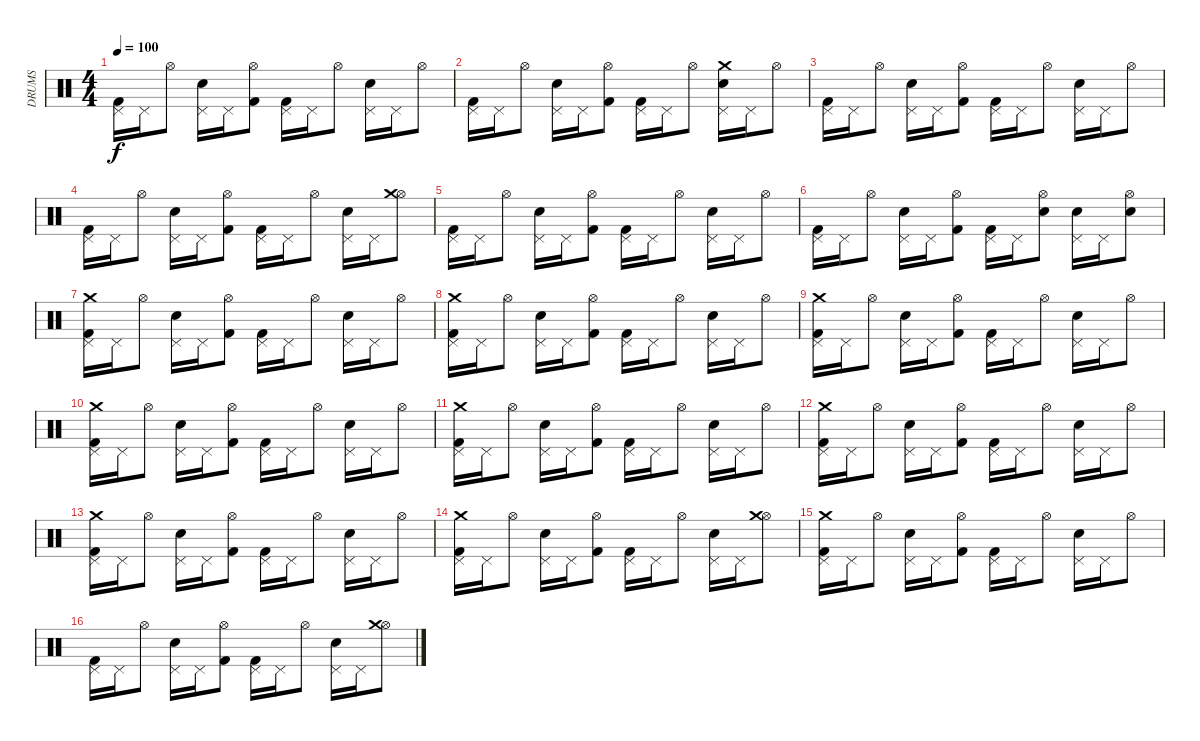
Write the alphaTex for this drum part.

\track ("DRUMS" "DRUMS") {instrument percussion}
\staff {score}
\articulation defaults
\ts (4 4)
\tempo 100
\clef neutral
\ks c
("Kick (hit) 2" "Pedal Hi-Hat (hit)").16{dy f} "Pedal Hi-Hat (hit)".16 "Hi-Hat (open)".8 ("Electric Snare (hit)" "Pedal Hi-Hat (hit)").16 "Pedal Hi-Hat (hit)".16 ("Kick (hit) 2" "Hi-Hat (open)").8 ("Kick (hit) 2" "Pedal Hi-Hat (hit)").16 "Pedal Hi-Hat (hit)".16 "Hi-Hat (open)".8 ("Electric Snare (hit)" "Pedal Hi-Hat (hit)").16 "Pedal Hi-Hat (hit)".16 "Hi-Hat (open)".8 |
("Kick (hit) 2" "Pedal Hi-Hat (hit)").16 "Pedal Hi-Hat (hit)".16 "Hi-Hat (open)".8 ("Electric Snare (hit)" "Pedal Hi-Hat (hit)").16 "Pedal Hi-Hat (hit)".16 ("Kick (hit) 2" "Hi-Hat (open)").8 ("Kick (hit) 2" "Pedal Hi-Hat (hit)").16 "Pedal Hi-Hat (hit)".16 "Hi-Hat (open)".8 ("Electric Snare (hit)" "Pedal Hi-Hat (hit)" "Crash medium (hit)").16 "Pedal Hi-Hat (hit)".16 "Hi-Hat (open)".8 |
("Kick (hit) 2" "Pedal Hi-Hat (hit)").16 "Pedal Hi-Hat (hit)".16 "Hi-Hat (open)".8 ("Electric Snare (hit)" "Pedal Hi-Hat (hit)").16 "Pedal Hi-Hat (hit)".16 ("Kick (hit) 2" "Hi-Hat (open)").8 ("Kick (hit) 2" "Pedal Hi-Hat (hit)").16 "Pedal Hi-Hat (hit)".16 "Hi-Hat (open)".8 ("Electric Snare (hit)" "Pedal Hi-Hat (hit)").16 "Pedal Hi-Hat (hit)".16 "Hi-Hat (open)".8 |
("Kick (hit) 2" "Pedal Hi-Hat (hit)").16 "Pedal Hi-Hat (hit)".16 "Hi-Hat (open)".8 ("Electric Snare (hit)" "Pedal Hi-Hat (hit)").16 "Pedal Hi-Hat (hit)".16 ("Kick (hit) 2" "Hi-Hat (open)").8 ("Kick (hit) 2" "Pedal Hi-Hat (hit)").16 "Pedal Hi-Hat (hit)".16 "Hi-Hat (open)".8 ("Electric Snare (hit)" "Pedal Hi-Hat (hit)").16 "Pedal Hi-Hat (hit)".16 ("Hi-Hat (open)" "Crash medium (hit)").8 |
("Kick (hit) 2" "Pedal Hi-Hat (hit)").16 "Pedal Hi-Hat (hit)".16 "Hi-Hat (open)".8 ("Electric Snare (hit)" "Pedal Hi-Hat (hit)").16 "Pedal Hi-Hat (hit)".16 ("Kick (hit) 2" "Hi-Hat (open)").8 ("Kick (hit) 2" "Pedal Hi-Hat (hit)").16 "Pedal Hi-Hat (hit)".16 "Hi-Hat (open)".8 ("Electric Snare (hit)" "Pedal Hi-Hat (hit)").16 "Pedal Hi-Hat (hit)".16 "Hi-Hat (open)".8 |
("Kick (hit) 2" "Pedal Hi-Hat (hit)").16 "Pedal Hi-Hat (hit)".16 "Hi-Hat (open)".8 ("Electric Snare (hit)" "Pedal Hi-Hat (hit)").16 "Pedal Hi-Hat (hit)".16 ("Kick (hit) 2" "Hi-Hat (open)").8 ("Kick (hit) 2" "Pedal Hi-Hat (hit)").16 "Pedal Hi-Hat (hit)".16 ("Electric Snare (hit)" "Hi-Hat (open)").8 ("Electric Snare (hit)" "Pedal Hi-Hat (hit)").16 "Pedal Hi-Hat (hit)".16 ("Electric Snare (hit)" "Hi-Hat (open)").8 |
("Kick (hit) 2" "Pedal Hi-Hat (hit)" "Crash medium (hit)").16 "Pedal Hi-Hat (hit)".16 "Hi-Hat (open)".8 ("Electric Snare (hit)" "Pedal Hi-Hat (hit)").16 "Pedal Hi-Hat (hit)".16 ("Kick (hit) 2" "Hi-Hat (open)").8 ("Kick (hit) 2" "Pedal Hi-Hat (hit)").16 "Pedal Hi-Hat (hit)".16 "Hi-Hat (open)".8 ("Electric Snare (hit)" "Pedal Hi-Hat (hit)").16 "Pedal Hi-Hat (hit)".16 "Hi-Hat (open)".8 |
("Kick (hit) 2" "Pedal Hi-Hat (hit)" "Crash medium (hit)").16 "Pedal Hi-Hat (hit)".16 "Hi-Hat (open)".8 ("Electric Snare (hit)" "Pedal Hi-Hat (hit)").16 "Pedal Hi-Hat (hit)".16 ("Kick (hit) 2" "Hi-Hat (open)").8 ("Kick (hit) 2" "Pedal Hi-Hat (hit)").16 "Pedal Hi-Hat (hit)".16 "Hi-Hat (open)".8 ("Electric Snare (hit)" "Pedal Hi-Hat (hit)").16 "Pedal Hi-Hat (hit)".16 "Hi-Hat (open)".8 |
("Kick (hit) 2" "Pedal Hi-Hat (hit)" "Crash medium (hit)").16 "Pedal Hi-Hat (hit)".16 "Hi-Hat (open)".8 ("Electric Snare (hit)" "Pedal Hi-Hat (hit)").16 "Pedal Hi-Hat (hit)".16 ("Kick (hit) 2" "Hi-Hat (open)").8 ("Kick (hit) 2" "Pedal Hi-Hat (hit)").16 "Pedal Hi-Hat (hit)".16 "Hi-Hat (open)".8 ("Electric Snare (hit)" "Pedal Hi-Hat (hit)").16 "Pedal Hi-Hat (hit)".16 "Hi-Hat (open)".8 |
("Kick (hit) 2" "Pedal Hi-Hat (hit)" "Crash medium (hit)").16 "Pedal Hi-Hat (hit)".16 "Hi-Hat (open)".8 ("Electric Snare (hit)" "Pedal Hi-Hat (hit)").16 "Pedal Hi-Hat (hit)".16 ("Kick (hit) 2" "Hi-Hat (open)").8 ("Kick (hit) 2" "Pedal Hi-Hat (hit)").16 "Pedal Hi-Hat (hit)".16 "Hi-Hat (open)".8 ("Electric Snare (hit)" "Pedal Hi-Hat (hit)").16 "Pedal Hi-Hat (hit)".16 "Hi-Hat (open)".8 |
("Kick (hit) 2" "Pedal Hi-Hat (hit)" "Crash medium (hit)").16 "Pedal Hi-Hat (hit)".16 "Hi-Hat (open)".8 ("Electric Snare (hit)" "Pedal Hi-Hat (hit)").16 "Pedal Hi-Hat (hit)".16 ("Kick (hit) 2" "Hi-Hat (open)").8 ("Kick (hit) 2" "Pedal Hi-Hat (hit)").16 "Pedal Hi-Hat (hit)".16 "Hi-Hat (open)".8 ("Electric Snare (hit)" "Pedal Hi-Hat (hit)").16 "Pedal Hi-Hat (hit)".16 "Hi-Hat (open)".8 |
("Kick (hit) 2" "Pedal Hi-Hat (hit)" "Crash medium (hit)").16 "Pedal Hi-Hat (hit)".16 "Hi-Hat (open)".8 ("Electric Snare (hit)" "Pedal Hi-Hat (hit)").16 "Pedal Hi-Hat (hit)".16 ("Kick (hit) 2" "Hi-Hat (open)").8 ("Kick (hit) 2" "Pedal Hi-Hat (hit)").16 "Pedal Hi-Hat (hit)".16 "Hi-Hat (open)".8 ("Electric Snare (hit)" "Pedal Hi-Hat (hit)").16 "Pedal Hi-Hat (hit)".16 "Hi-Hat (open)".8 |
("Kick (hit) 2" "Pedal Hi-Hat (hit)" "Crash medium (hit)").16 "Pedal Hi-Hat (hit)".16 "Hi-Hat (open)".8 ("Electric Snare (hit)" "Pedal Hi-Hat (hit)").16 "Pedal Hi-Hat (hit)".16 ("Kick (hit) 2" "Hi-Hat (open)").8 ("Kick (hit) 2" "Pedal Hi-Hat (hit)").16 "Pedal Hi-Hat (hit)".16 "Hi-Hat (open)".8 ("Electric Snare (hit)" "Pedal Hi-Hat (hit)").16 "Pedal Hi-Hat (hit)".16 "Hi-Hat (open)".8 |
("Kick (hit) 2" "Pedal Hi-Hat (hit)" "Crash medium (hit)").16 "Pedal Hi-Hat (hit)".16 "Hi-Hat (open)".8 ("Electric Snare (hit)" "Pedal Hi-Hat (hit)").16 "Pedal Hi-Hat (hit)".16 ("Kick (hit) 2" "Hi-Hat (open)").8 ("Kick (hit) 2" "Pedal Hi-Hat (hit)").16 "Pedal Hi-Hat (hit)".16 "Hi-Hat (open)".8 ("Electric Snare (hit)" "Pedal Hi-Hat (hit)").16 "Pedal Hi-Hat (hit)".16 ("Hi-Hat (open)" "Crash medium (hit)").8 |
("Kick (hit) 2" "Pedal Hi-Hat (hit)" "Crash medium (hit)").16 "Pedal Hi-Hat (hit)".16 "Hi-Hat (open)".8 ("Electric Snare (hit)" "Pedal Hi-Hat (hit)").16 "Pedal Hi-Hat (hit)".16 ("Kick (hit) 2" "Hi-Hat (open)").8 ("Kick (hit) 2" "Pedal Hi-Hat (hit)").16 "Pedal Hi-Hat (hit)".16 "Hi-Hat (open)".8 ("Electric Snare (hit)" "Pedal Hi-Hat (hit)").16 "Pedal Hi-Hat (hit)".16 "Hi-Hat (open)".8 |
("Kick (hit) 2" "Pedal Hi-Hat (hit)").16 "Pedal Hi-Hat (hit)".16 "Hi-Hat (open)".8 ("Electric Snare (hit)" "Pedal Hi-Hat (hit)").16 "Pedal Hi-Hat (hit)".16 ("Kick (hit) 2" "Hi-Hat (open)").8 ("Kick (hit) 2" "Pedal Hi-Hat (hit)").16 "Pedal Hi-Hat (hit)".16 "Hi-Hat (open)".8 ("Electric Snare (hit)" "Pedal Hi-Hat (hit)").16 "Pedal Hi-Hat (hit)".16 ("Hi-Hat (open)" "Crash medium (hit)").8
